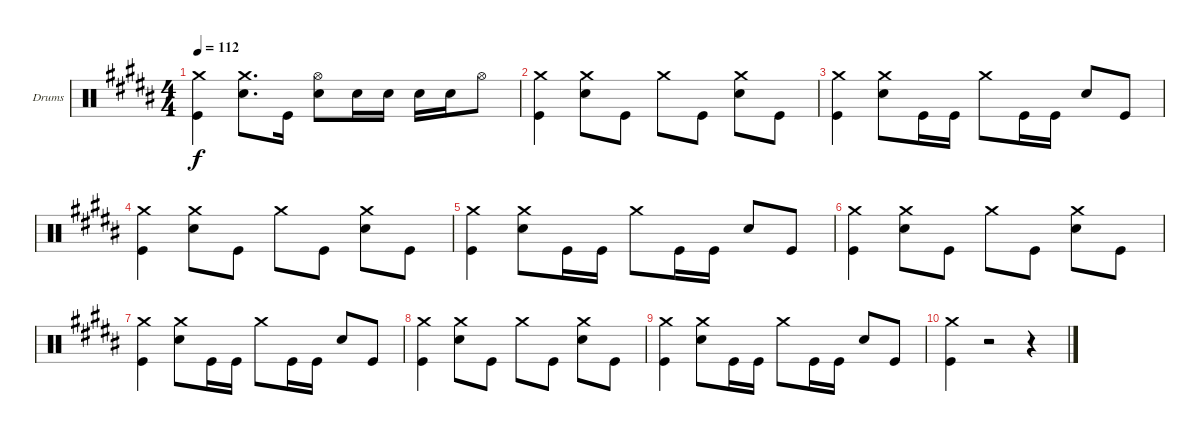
\bracketExtendMode groupsimilarinstruments
\firstSystemTrackNameOrientation horizontal
\otherSystemsTrackNameOrientation horizontal
\track ("Drumkit" "Drums") {instrument percussion}
\staff {score}
\articulation defaults
\ts (4 4)
\tempo 112
\clef neutral
\ks g#minor
("Crash medium (hit)" "Kick (hit)").4{dy f} ("Crash medium (hit)" "Snare (hit) 2").8{d} "Kick (hit)".16 ("Hi-Hat (open)" "Snare (hit) 2").8 "Snare (hit) 2".16 "Snare (hit) 2".16 "Snare (hit) 2".16 "Snare (hit) 2".16 "Hi-Hat (open)".8 |
("Crash medium (hit)" "Kick (hit)").4 ("Crash medium (hit)" "Snare (hit) 2").8 "Kick (hit)".8 "Crash medium (hit)".8 "Kick (hit)".8 ("Crash medium (hit)" "Snare (hit) 2").8 "Kick (hit)".8 |
("Crash medium (hit)" "Kick (hit)").4 ("Crash medium (hit)" "Snare (hit) 2").8 "Kick (hit)".16 "Kick (hit)".16 "Crash medium (hit)".8 "Kick (hit)".16 "Kick (hit)".16 "Snare (hit) 2".8 "Kick (hit)".8 |
("Crash medium (hit)" "Kick (hit)").4 ("Crash medium (hit)" "Snare (hit) 2").8 "Kick (hit)".8 "Crash medium (hit)".8 "Kick (hit)".8 ("Crash medium (hit)" "Snare (hit) 2").8 "Kick (hit)".8 |
("Crash medium (hit)" "Kick (hit)").4 ("Crash medium (hit)" "Snare (hit) 2").8 "Kick (hit)".16 "Kick (hit)".16 "Crash medium (hit)".8 "Kick (hit)".16 "Kick (hit)".16 "Snare (hit) 2".8 "Kick (hit)".8 |
("Crash medium (hit)" "Kick (hit)").4 ("Crash medium (hit)" "Snare (hit) 2").8 "Kick (hit)".8 "Crash medium (hit)".8 "Kick (hit)".8 ("Crash medium (hit)" "Snare (hit) 2").8 "Kick (hit)".8 |
("Crash medium (hit)" "Kick (hit)").4 ("Crash medium (hit)" "Snare (hit) 2").8 "Kick (hit)".16 "Kick (hit)".16 "Crash medium (hit)".8 "Kick (hit)".16 "Kick (hit)".16 "Snare (hit) 2".8 "Kick (hit)".8 |
("Crash medium (hit)" "Kick (hit)").4 ("Crash medium (hit)" "Snare (hit) 2").8 "Kick (hit)".8 "Crash medium (hit)".8 "Kick (hit)".8 ("Crash medium (hit)" "Snare (hit) 2").8 "Kick (hit)".8 |
("Crash medium (hit)" "Kick (hit)").4 ("Crash medium (hit)" "Snare (hit) 2").8 "Kick (hit)".16 "Kick (hit)".16 "Crash medium (hit)".8 "Kick (hit)".16 "Kick (hit)".16 "Snare (hit) 2".8 "Kick (hit)".8 |
("Crash medium (hit)" "Kick (hit)").4 r.2 r.4
